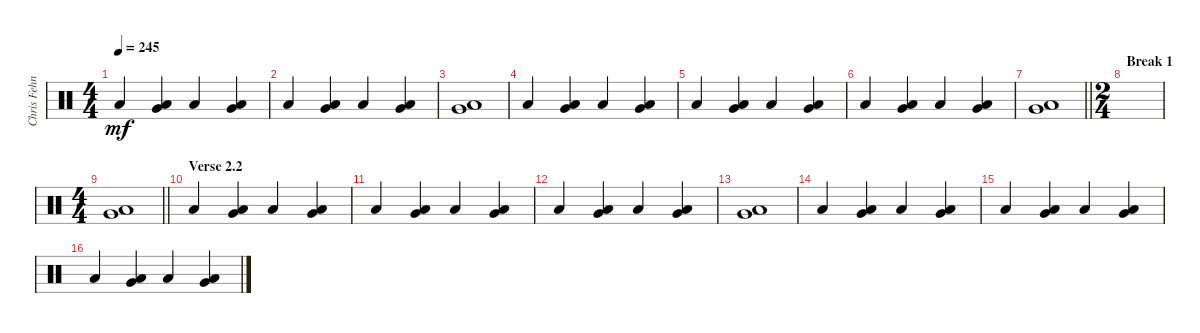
\track ("Chris Fehn" "Chris Fehn") {instrument percussion}
\staff {score}
\articulation defaults
\ts (4 4)
\tempo 245
\clef neutral
\ks c "Low Floor Tom (hit)".4{dy mf}
("Very Low Tom (hit)" "Low Floor Tom (hit)").4 "Low Floor Tom (hit)".4 ("Very Low Tom (hit)" "Low Floor Tom (hit)").4 |
"Low Floor Tom (hit)".4 ("Very Low Tom (hit)" "Low Floor Tom (hit)").4 "Low Floor Tom (hit)".4 ("Very Low Tom (hit)" "Low Floor Tom (hit)").4 |
("Very Low Tom (hit)" "Low Floor Tom (hit)").1 |
"Low Floor Tom (hit)".4 ("Very Low Tom (hit)" "Low Floor Tom (hit)").4 "Low Floor Tom (hit)".4 ("Very Low Tom (hit)" "Low Floor Tom (hit)").4 |
"Low Floor Tom (hit)".4 ("Very Low Tom (hit)" "Low Floor Tom (hit)").4 "Low Floor Tom (hit)".4 ("Very Low Tom (hit)" "Low Floor Tom (hit)").4 |
"Low Floor Tom (hit)".4 ("Very Low Tom (hit)" "Low Floor Tom (hit)").4 "Low Floor Tom (hit)".4 ("Very Low Tom (hit)" "Low Floor Tom (hit)").4 |
\barLineRight lightlight
("Very Low Tom (hit)" "Low Floor Tom (hit)").1 |
\ts (2 4)
\section ("" "Break 1")
|
\ts (4 4)
\barLineRight lightlight
("Very Low Tom (hit)" "Low Floor Tom (hit)").1 |
\section ("" "Verse 2.2")
"Low Floor Tom (hit)".4 ("Very Low Tom (hit)" "Low Floor Tom (hit)").4 "Low Floor Tom (hit)".4 ("Very Low Tom (hit)" "Low Floor Tom (hit)").4 |
"Low Floor Tom (hit)".4 ("Very Low Tom (hit)" "Low Floor Tom (hit)").4 "Low Floor Tom (hit)".4 ("Very Low Tom (hit)" "Low Floor Tom (hit)").4 |
"Low Floor Tom (hit)".4 ("Very Low Tom (hit)" "Low Floor Tom (hit)").4 "Low Floor Tom (hit)".4 ("Very Low Tom (hit)" "Low Floor Tom (hit)").4 |
("Very Low Tom (hit)" "Low Floor Tom (hit)").1 |
"Low Floor Tom (hit)".4 ("Very Low Tom (hit)" "Low Floor Tom (hit)").4 "Low Floor Tom (hit)".4 ("Very Low Tom (hit)" "Low Floor Tom (hit)").4 |
"Low Floor Tom (hit)".4 ("Very Low Tom (hit)" "Low Floor Tom (hit)").4 "Low Floor Tom (hit)".4 ("Very Low Tom (hit)" "Low Floor Tom (hit)").4 |
"Low Floor Tom (hit)".4 ("Very Low Tom (hit)" "Low Floor Tom (hit)").4 "Low Floor Tom (hit)".4 ("Very Low Tom (hit)" "Low Floor Tom (hit)").4
